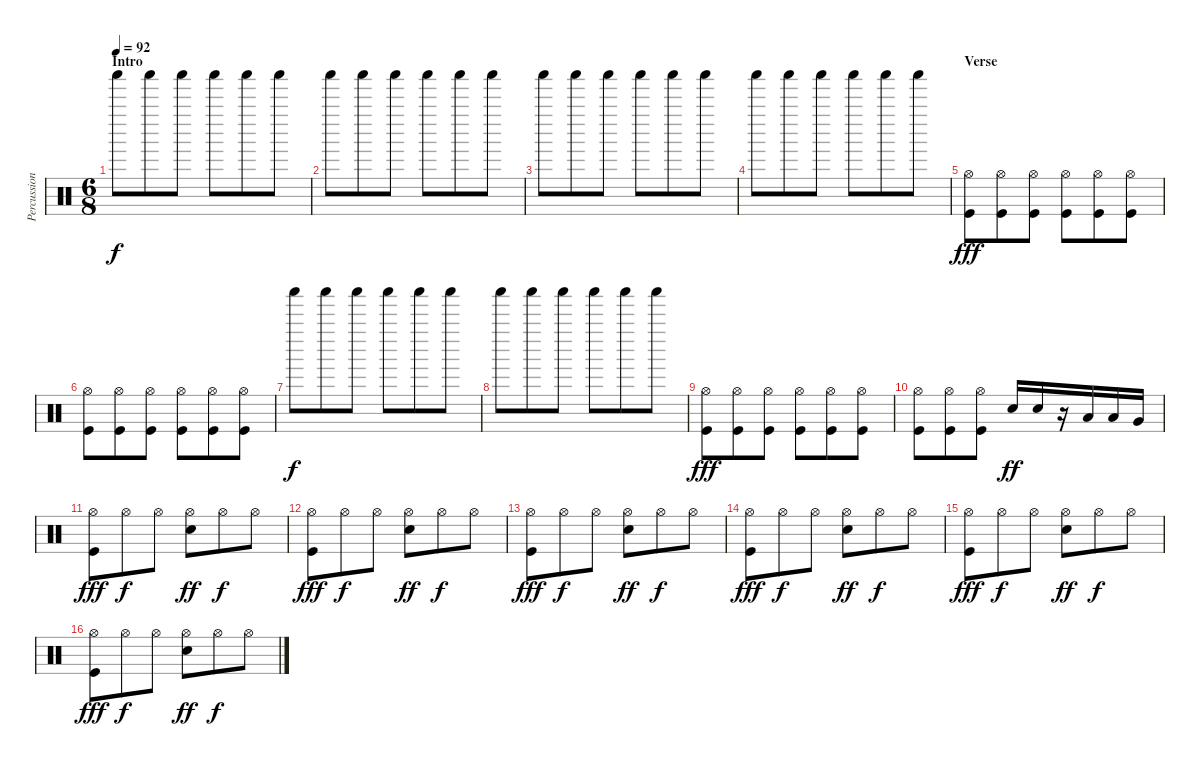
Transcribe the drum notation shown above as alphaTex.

\track ("Percussion" "Percussion") {instrument percussion}
\staff {score}
\articulation defaults
\ts (6 8)
\section ("" "Intro")
\tempo 92
\clef neutral
\ks c "Shaker (hit)".8{dy f} "Shaker (hit)".8 "Shaker (hit)".8 "Shaker (hit)".8 "Shaker (hit)".8 "Shaker (hit)".8
|
"Shaker (hit)".8 "Shaker (hit)".8 "Shaker (hit)".8 "Shaker (hit)".8 "Shaker (hit)".8 "Shaker (hit)".8 |
"Shaker (hit)".8 "Shaker (hit)".8 "Shaker (hit)".8 "Shaker (hit)".8 "Shaker (hit)".8 "Shaker (hit)".8 |
"Shaker (hit)".8 "Shaker (hit)".8 "Shaker (hit)".8 "Shaker (hit)".8 "Shaker (hit)".8 "Shaker (hit)".8 |
\section ("" "Verse")
("Hi-Hat (open)" "Kick (hit)").8{dy fff} ("Hi-Hat (open)" "Kick (hit)").8 ("Hi-Hat (open)" "Kick (hit)").8 ("Hi-Hat (open)" "Kick (hit)").8 ("Hi-Hat (open)" "Kick (hit)").8 ("Hi-Hat (open)" "Kick (hit)").8 |
("Hi-Hat (open)" "Kick (hit)").8 ("Hi-Hat (open)" "Kick (hit)").8 ("Hi-Hat (open)" "Kick (hit)").8 ("Hi-Hat (open)" "Kick (hit)").8 ("Hi-Hat (open)" "Kick (hit)").8 ("Hi-Hat (open)" "Kick (hit)").8 |
"Shaker (hit)".8{dy f} "Shaker (hit)".8 "Shaker (hit)".8 "Shaker (hit)".8 "Shaker (hit)".8 "Shaker (hit)".8 |
"Shaker (hit)".8 "Shaker (hit)".8 "Shaker (hit)".8 "Shaker (hit)".8 "Shaker (hit)".8 "Shaker (hit)".8 |
("Hi-Hat (open)" "Kick (hit)").8{dy fff} ("Hi-Hat (open)" "Kick (hit)").8 ("Hi-Hat (open)" "Kick (hit)").8 ("Hi-Hat (open)" "Kick (hit)").8 ("Hi-Hat (open)" "Kick (hit)").8 ("Hi-Hat (open)" "Kick (hit)").8 |
("Hi-Hat (open)" "Kick (hit)").8 ("Hi-Hat (open)" "Kick (hit)").8 ("Hi-Hat (open)" "Kick (hit)").8 "Snare (hit) 2".16{dy ff} "Snare (hit) 2".16 r.16 "Low Tom (hit)".16 "Low Tom (hit)".16 "Very Low Tom (hit)".16 |
("Hi-Hat (open)" "Kick (hit)").8{dy fff} "Hi-Hat (open)".8{dy f} "Hi-Hat (open)".8 ("Hi-Hat (open)" "Snare (hit) 2").8{dy ff} "Hi-Hat (open)".8{dy f} "Hi-Hat (open)".8 |
("Hi-Hat (open)" "Kick (hit)").8{dy fff} "Hi-Hat (open)".8{dy f} "Hi-Hat (open)".8 ("Hi-Hat (open)" "Snare (hit) 2").8{dy ff} "Hi-Hat (open)".8{dy f} "Hi-Hat (open)".8 |
("Hi-Hat (open)" "Kick (hit)").8{dy fff} "Hi-Hat (open)".8{dy f} "Hi-Hat (open)".8 ("Hi-Hat (open)" "Snare (hit) 2").8{dy ff} "Hi-Hat (open)".8{dy f} "Hi-Hat (open)".8 |
("Hi-Hat (open)" "Kick (hit)").8{dy fff} "Hi-Hat (open)".8{dy f} "Hi-Hat (open)".8 ("Hi-Hat (open)" "Snare (hit) 2").8{dy ff} "Hi-Hat (open)".8{dy f} "Hi-Hat (open)".8 |
("Hi-Hat (open)" "Kick (hit)").8{dy fff} "Hi-Hat (open)".8{dy f} "Hi-Hat (open)".8 ("Hi-Hat (open)" "Snare (hit) 2").8{dy ff} "Hi-Hat (open)".8{dy f} "Hi-Hat (open)".8 |
("Hi-Hat (open)" "Kick (hit)").8{dy fff} "Hi-Hat (open)".8{dy f} "Hi-Hat (open)".8 ("Hi-Hat (open)" "Snare (hit) 2").8{dy ff} "Hi-Hat (open)".8{dy f} "Hi-Hat (open)".8
